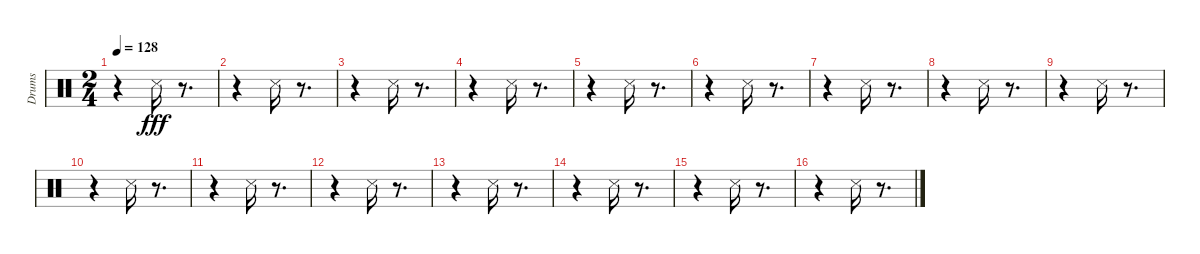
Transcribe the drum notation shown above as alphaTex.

\track ("Drums" "Drums") {instrument percussion}
\staff {score}
\articulation defaults
\ts (2 4)
\tempo 128
\clef neutral
\ks c
r.4{dy fff} "Snare (side stick) 3".16 r.8{d} |
r.4 "Snare (side stick) 3".16 r.8{d} |
r.4 "Snare (side stick) 3".16 r.8{d} |
r.4 "Snare (side stick) 3".16 r.8{d} |
r.4 "Snare (side stick) 3".16 r.8{d} |
r.4 "Snare (side stick) 3".16 r.8{d} |
r.4 "Snare (side stick) 3".16 r.8{d} |
r.4 "Snare (side stick) 3".16 r.8{d} |
r.4 "Snare (side stick) 3".16 r.8{d} |
r.4 "Snare (side stick) 3".16 r.8{d} |
r.4 "Snare (side stick) 3".16 r.8{d} |
r.4 "Snare (side stick) 3".16 r.8{d} |
r.4 "Snare (side stick) 3".16 r.8{d} |
r.4 "Snare (side stick) 3".16 r.8{d} |
r.4 "Snare (side stick) 3".16 r.8{d} |
r.4 "Snare (side stick) 3".16 r.8{d}
